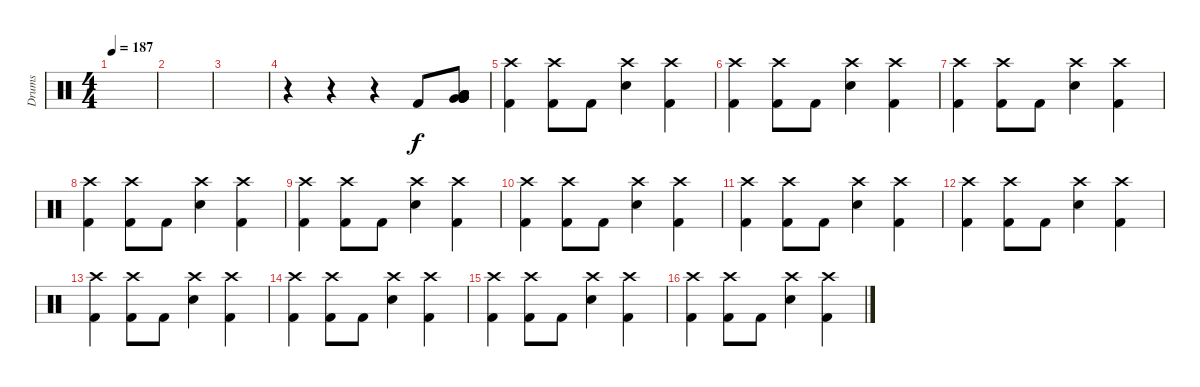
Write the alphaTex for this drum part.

\track ("Drums" "Drums") {instrument percussion}
\staff {score}
\articulation defaults
\ts (4 4)
\tempo 187
\clef neutral
\ks c
|
|
|
r.4 r.4 r.4 "Kick (hit) 2".8 ("Low Tom (hit)" "Low Tom (hit)" "Low Tom (hit)" "Very Low Tom (hit)" "Very Low Tom (hit)" "Very Low Tom (hit)").8 |
("Crash high (hit)" "Kick (hit) 2").4 ("Crash high (hit)" "Kick (hit) 2").8 "Kick (hit) 2".8 ("Crash high (hit)" "Electric Snare (hit)").4 ("Crash high (hit)" "Kick (hit) 2").4 |
("Crash high (hit)" "Kick (hit) 2").4 ("Crash high (hit)" "Kick (hit) 2").8 "Kick (hit) 2".8 ("Crash high (hit)" "Electric Snare (hit)").4 ("Crash high (hit)" "Kick (hit) 2").4 |
("Crash high (hit)" "Kick (hit) 2").4 ("Crash high (hit)" "Kick (hit) 2").8 "Kick (hit) 2".8 ("Crash high (hit)" "Electric Snare (hit)").4 ("Crash high (hit)" "Kick (hit) 2").4 |
("Crash high (hit)" "Kick (hit) 2").4 ("Crash high (hit)" "Kick (hit) 2").8 "Kick (hit) 2".8 ("Crash high (hit)" "Electric Snare (hit)").4 ("Crash high (hit)" "Kick (hit) 2").4 |
("Crash high (hit)" "Kick (hit) 2").4 ("Crash high (hit)" "Kick (hit) 2").8 "Kick (hit) 2".8 ("Crash high (hit)" "Electric Snare (hit)").4 ("Crash high (hit)" "Kick (hit) 2").4 |
("Crash high (hit)" "Kick (hit) 2").4 ("Crash high (hit)" "Kick (hit) 2").8 "Kick (hit) 2".8 ("Crash high (hit)" "Electric Snare (hit)").4 ("Crash high (hit)" "Kick (hit) 2").4 |
("Crash high (hit)" "Kick (hit) 2").4 ("Crash high (hit)" "Kick (hit) 2").8 "Kick (hit) 2".8 ("Crash high (hit)" "Electric Snare (hit)").4 ("Crash high (hit)" "Kick (hit) 2").4 |
("Crash high (hit)" "Kick (hit) 2").4 ("Crash high (hit)" "Kick (hit) 2").8 "Kick (hit) 2".8 ("Crash high (hit)" "Electric Snare (hit)").4 ("Crash high (hit)" "Kick (hit) 2").4 |
("Crash high (hit)" "Kick (hit) 2").4 ("Crash high (hit)" "Kick (hit) 2").8 "Kick (hit) 2".8 ("Crash high (hit)" "Electric Snare (hit)").4 ("Crash high (hit)" "Kick (hit) 2").4 |
("Crash high (hit)" "Kick (hit) 2").4 ("Crash high (hit)" "Kick (hit) 2").8 "Kick (hit) 2".8 ("Crash high (hit)" "Electric Snare (hit)").4 ("Crash high (hit)" "Kick (hit) 2").4 |
("Crash high (hit)" "Kick (hit) 2").4 ("Crash high (hit)" "Kick (hit) 2").8 "Kick (hit) 2".8 ("Crash high (hit)" "Electric Snare (hit)").4 ("Crash high (hit)" "Kick (hit) 2").4 |
("Crash high (hit)" "Kick (hit) 2").4 ("Crash high (hit)" "Kick (hit) 2").8 "Kick (hit) 2".8 ("Crash high (hit)" "Electric Snare (hit)").4 ("Crash high (hit)" "Kick (hit) 2").4
